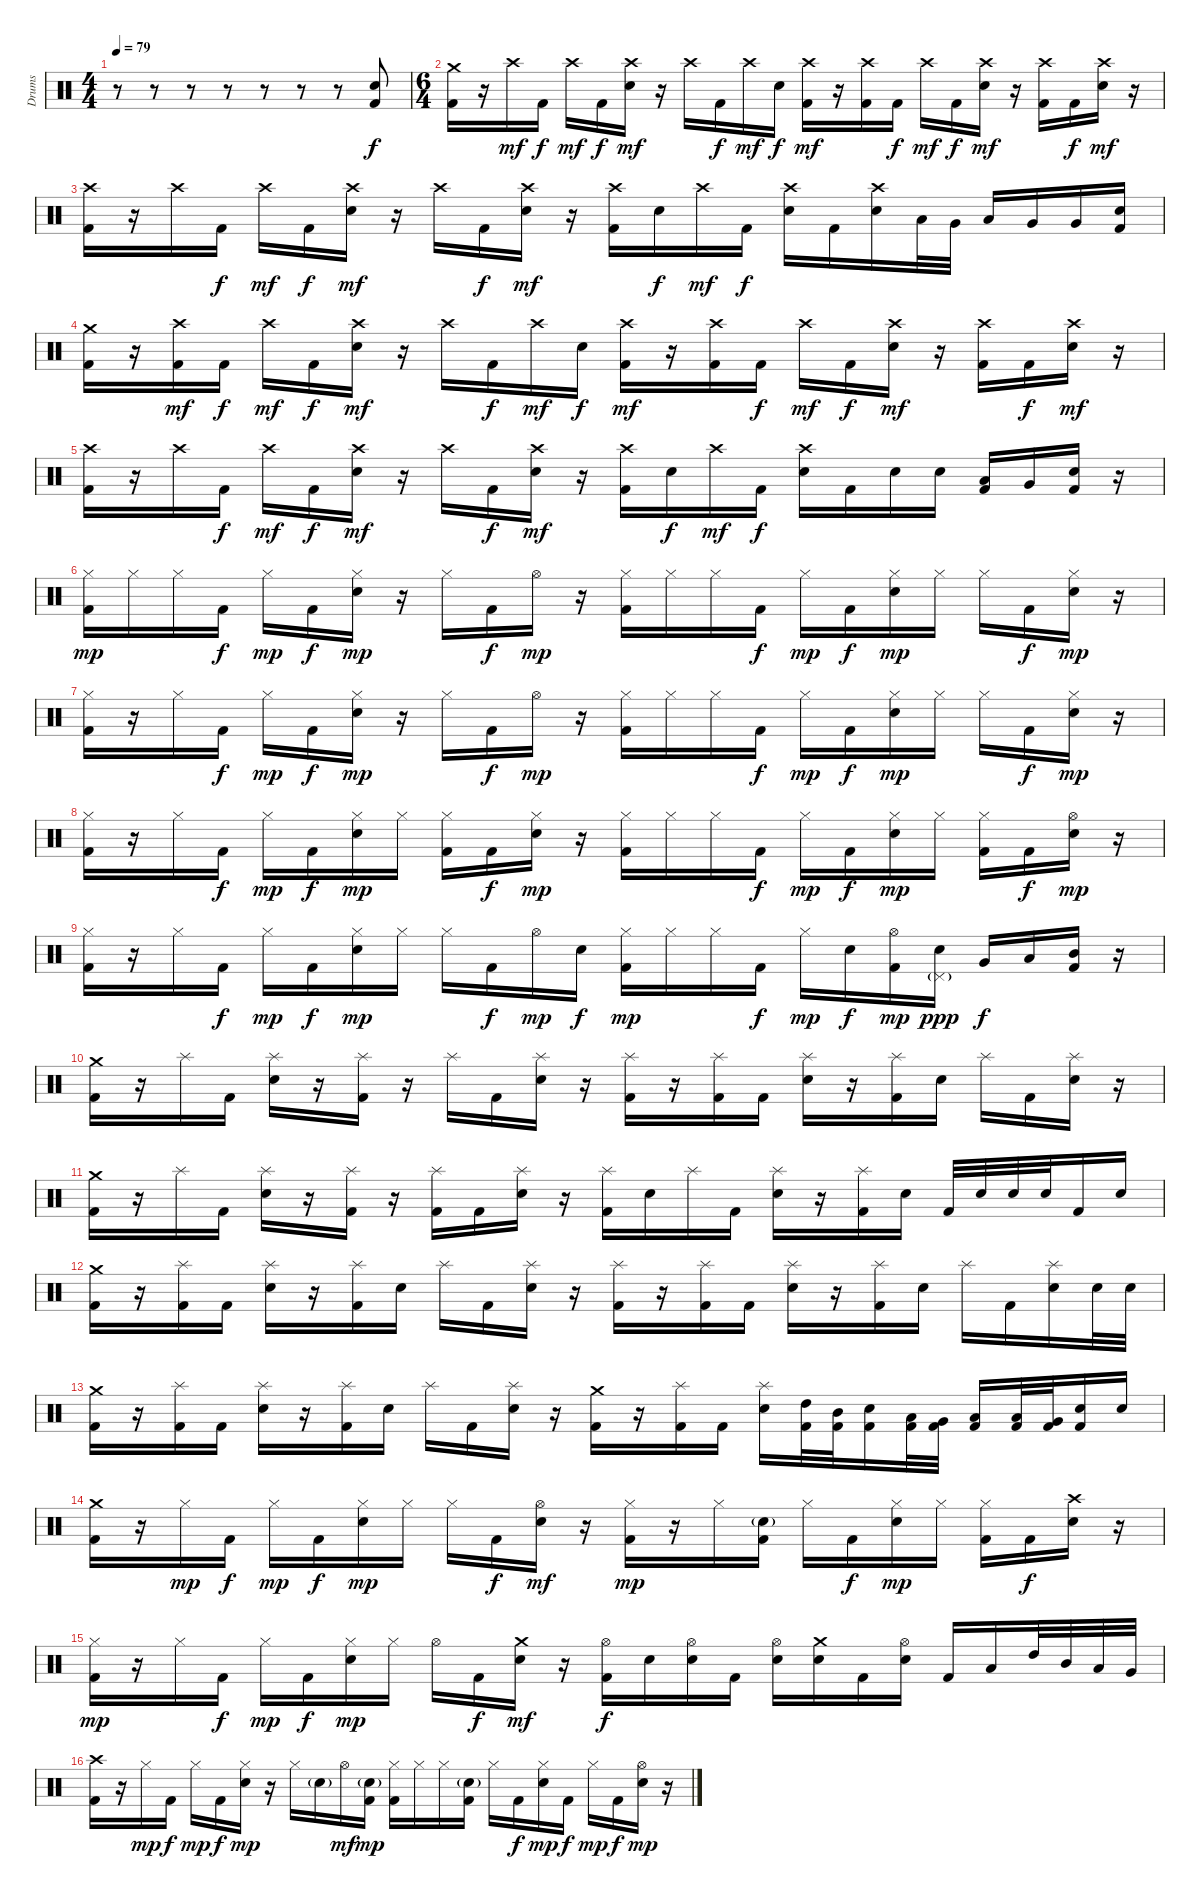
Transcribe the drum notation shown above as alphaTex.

\track ("Drums" "Drums") {instrument percussion}
\staff {score}
\articulation defaults
\ts (4 4)
\tempo 79
\clef neutral
\ks c
r.8{dy ppp} r.8 r.8 r.8 r.8 r.8 r.8 ("Electric Snare (hit)" "Kick (hit) 2").8{dy f} |
\ts (6 4)
("Crash medium (hit)" "Kick (hit) 2").16 r.16 "Crash high (hit)".16{dy mf} "Kick (hit) 2".16{dy f} "Crash high (hit)".16{dy mf} "Kick (hit) 2".16{dy f} ("Crash high (hit)" "Electric Snare (hit)").16{dy mf} r.16 "Crash high (hit)".16 "Kick (hit) 2".16{dy f} "Crash high (hit)".16{dy mf} "Electric Snare (hit)".16{dy f} ("Crash high (hit)" "Kick (hit) 2").16{dy mf} r.16 ("Crash high (hit)" "Kick (hit) 2").16 "Kick (hit) 2".16{dy f} "Crash high (hit)".16{dy mf} "Kick (hit) 2".16{dy f} ("Crash high (hit)" "Electric Snare (hit)").16{dy mf} r.16 ("Crash high (hit)" "Kick (hit) 2").16 "Kick (hit) 2".16{dy f} ("Crash high (hit)" "Electric Snare (hit)").16{dy mf} r.16 |
("Crash high (hit)" "Kick (hit) 2").16 r.16 "Crash high (hit)".16 "Kick (hit) 2".16{dy f} "Crash high (hit)".16{dy mf} "Kick (hit) 2".16{dy f} ("Crash high (hit)" "Electric Snare (hit)").16{dy mf} r.16 "Crash high (hit)".16 "Kick (hit) 2".16{dy f} ("Crash high (hit)" "Electric Snare (hit)").16{dy mf} r.16 ("Crash high (hit)" "Kick (hit) 2").16 "Electric Snare (hit)".16{dy f} "Crash high (hit)".16{dy mf} "Kick (hit) 2".16{dy f} ("Crash high (hit)" "Electric Snare (hit)").16 "Kick (hit) 2".16 ("Crash high (hit)" "Electric Snare (hit)").16 "Low Floor Tom (hit)".32 "Very Low Tom (hit)".32 "Low Tom (hit)".16 "Very Low Tom (hit)".16 "Very Low Tom (hit)".16 ("Electric Snare (hit)" "Kick (hit) 2").16 |
("Crash medium (hit)" "Kick (hit) 2").16 r.16 ("Crash high (hit)" "Kick (hit) 2").16{dy mf} "Kick (hit) 2".16{dy f} "Crash high (hit)".16{dy mf} "Kick (hit) 2".16{dy f} ("Crash high (hit)" "Electric Snare (hit)").16{dy mf} r.16 "Crash high (hit)".16 "Kick (hit) 2".16{dy f} "Crash high (hit)".16{dy mf} "Electric Snare (hit)".16{dy f} ("Crash high (hit)" "Kick (hit) 2").16{dy mf} r.16 ("Crash high (hit)" "Kick (hit) 2").16 "Kick (hit) 2".16{dy f} "Crash high (hit)".16{dy mf} "Kick (hit) 2".16{dy f} ("Crash high (hit)" "Electric Snare (hit)").16{dy mf} r.16 ("Crash high (hit)" "Kick (hit) 2").16 "Kick (hit) 2".16{dy f} ("Crash high (hit)" "Electric Snare (hit)").16{dy mf} r.16 |
("Crash high (hit)" "Kick (hit) 2").16 r.16 "Crash high (hit)".16 "Kick (hit) 2".16{dy f} "Crash high (hit)".16{dy mf} "Kick (hit) 2".16{dy f} ("Crash high (hit)" "Electric Snare (hit)").16{dy mf} r.16 "Crash high (hit)".16 "Kick (hit) 2".16{dy f} ("Crash high (hit)" "Electric Snare (hit)").16{dy mf} r.16 ("Crash high (hit)" "Kick (hit) 2").16 "Electric Snare (hit)".16{dy f} "Crash high (hit)".16{dy mf} "Kick (hit) 2".16{dy f} ("Crash high (hit)" "Electric Snare (hit)").16 "Kick (hit) 2".16 "Electric Snare (hit)".16 "Electric Snare (hit)".16 ("Low Floor Tom (hit)" "Kick (hit) 2").16 "Very Low Tom (hit)".16 ("Electric Snare (hit)" "Kick (hit) 2").16 r.16 |
("Hi-Hat (closed)" "Kick (hit) 2").16{dy mp} "Hi-Hat (closed)".16 "Hi-Hat (closed)".16 "Kick (hit) 2".16{dy f} "Hi-Hat (closed)".16{dy mp} "Kick (hit) 2".16{dy f} ("Hi-Hat (closed)" "Electric Snare (hit)").16{dy mp} r.16 "Hi-Hat (closed)".16 "Kick (hit) 2".16{dy f} "Hi-Hat (open)".16{dy mp} r.16 ("Hi-Hat (closed)" "Kick (hit) 2").16 "Hi-Hat (closed)".16 "Hi-Hat (closed)".16 "Kick (hit) 2".16{dy f} "Hi-Hat (closed)".16{dy mp} "Kick (hit) 2".16{dy f} ("Hi-Hat (closed)" "Electric Snare (hit)").16{dy mp} "Hi-Hat (closed)".16 "Hi-Hat (closed)".16 "Kick (hit) 2".16{dy f} ("Hi-Hat (closed)" "Electric Snare (hit)").16{dy mp} r.16 |
("Hi-Hat (closed)" "Kick (hit) 2").16 r.16 "Hi-Hat (closed)".16 "Kick (hit) 2".16{dy f} "Hi-Hat (closed)".16{dy mp} "Kick (hit) 2".16{dy f} ("Hi-Hat (closed)" "Electric Snare (hit)").16{dy mp} r.16 "Hi-Hat (closed)".16 "Kick (hit) 2".16{dy f} "Hi-Hat (open)".16{dy mp} r.16 ("Hi-Hat (closed)" "Kick (hit) 2").16 "Hi-Hat (closed)".16 "Hi-Hat (closed)".16 "Kick (hit) 2".16{dy f} "Hi-Hat (closed)".16{dy mp} "Kick (hit) 2".16{dy f} ("Hi-Hat (closed)" "Electric Snare (hit)").16{dy mp} "Hi-Hat (closed)".16 "Hi-Hat (closed)".16 "Kick (hit) 2".16{dy f} ("Hi-Hat (closed)" "Electric Snare (hit)").16{dy mp} r.16 |
("Hi-Hat (closed)" "Kick (hit) 2").16 r.16 "Hi-Hat (closed)".16 "Kick (hit) 2".16{dy f} "Hi-Hat (closed)".16{dy mp} "Kick (hit) 2".16{dy f} ("Hi-Hat (closed)" "Electric Snare (hit)").16{dy mp} "Hi-Hat (closed)".16 ("Hi-Hat (closed)" "Kick (hit) 2").16 "Kick (hit) 2".16{dy f} ("Hi-Hat (closed)" "Electric Snare (hit)").16{dy mp} r.16 ("Hi-Hat (closed)" "Kick (hit) 2").16 "Hi-Hat (closed)".16 "Hi-Hat (closed)".16 "Kick (hit) 2".16{dy f} "Hi-Hat (closed)".16{dy mp} "Kick (hit) 2".16{dy f} ("Hi-Hat (closed)" "Electric Snare (hit)").16{dy mp} "Hi-Hat (closed)".16 ("Hi-Hat (closed)" "Kick (hit) 2").16 "Kick (hit) 2".16{dy f} ("Hi-Hat (open)" "Electric Snare (hit)").16{dy mp} r.16 |
("Hi-Hat (closed)" "Kick (hit) 2").16 r.16 "Hi-Hat (closed)".16 "Kick (hit) 2".16{dy f} "Hi-Hat (closed)".16{dy mp} "Kick (hit) 2".16{dy f} ("Hi-Hat (closed)" "Electric Snare (hit)").16{dy mp} "Hi-Hat (closed)".16 "Hi-Hat (closed)".16 "Kick (hit) 2".16{dy f} "Hi-Hat (open)".16{dy mp} "Electric Snare (hit)".16{dy f} ("Hi-Hat (closed)" "Kick (hit) 2").16{dy mp} "Hi-Hat (closed)".16 "Hi-Hat (closed)".16 "Kick (hit) 2".16{dy f} "Hi-Hat (closed)".16{dy mp} "Electric Snare (hit)".16{dy f} ("Hi-Hat (open)" "Kick (hit) 2").16{dy mp} ("Pedal Hi-Hat (hit)"{g} "Electric Snare (hit)").16{dy ppp} "Very Low Tom (hit)".16{dy f} "Low Floor Tom (hit)".16 ("Mid Tom (hit)" "Kick (hit) 2").16 r.16 |
("Crash medium (hit)" "Kick (hit) 2").16 r.16 "Splash (hit)".16 "Kick (hit) 2".16 ("Splash (hit)" "Electric Snare (hit)").16 r.16 ("Splash (hit)" "Kick (hit) 2").16 r.16 "Splash (hit)".16 "Kick (hit) 2".16 ("Splash (hit)" "Electric Snare (hit)").16 r.16 ("Splash (hit)" "Kick (hit) 2").16 r.16 ("Splash (hit)" "Kick (hit) 2").16 "Kick (hit) 2".16 ("Splash (hit)" "Electric Snare (hit)").16 r.16 ("Splash (hit)" "Kick (hit) 2").16 "Electric Snare (hit)".16 "Splash (hit)".16 "Kick (hit) 2".16 ("Splash (hit)" "Electric Snare (hit)").16 r.16 |
("Crash medium (hit)" "Kick (hit) 2").16 r.16 "Splash (hit)".16 "Kick (hit) 2".16 ("Splash (hit)" "Electric Snare (hit)").16 r.16 ("Splash (hit)" "Kick (hit) 2").16 r.16 ("Splash (hit)" "Kick (hit) 2").16 "Kick (hit) 2".16 ("Splash (hit)" "Electric Snare (hit)").16 r.16 ("Splash (hit)" "Kick (hit) 2").16 "Electric Snare (hit)".16 "Splash (hit)".16 "Kick (hit) 2".16 ("Splash (hit)" "Electric Snare (hit)").16 r.16 ("Splash (hit)" "Kick (hit) 2").16 "Electric Snare (hit)".16 "Kick (hit) 2".32 "Electric Snare (hit)".32 "Electric Snare (hit)".32 "Electric Snare (hit)".32 "Kick (hit) 2".16 "Electric Snare (hit)".16 |
("Crash medium (hit)" "Kick (hit) 2").16 r.16 ("Splash (hit)" "Kick (hit) 2").16 "Kick (hit) 2".16 ("Splash (hit)" "Electric Snare (hit)").16 r.16 ("Splash (hit)" "Kick (hit) 2").16 "Electric Snare (hit)".16 "Splash (hit)".16 "Kick (hit) 2".16 ("Splash (hit)" "Electric Snare (hit)").16 r.16 ("Splash (hit)" "Kick (hit) 2").16 r.16 ("Splash (hit)" "Kick (hit) 2").16 "Kick (hit) 2".16 ("Splash (hit)" "Electric Snare (hit)").16 r.16 ("Splash (hit)" "Kick (hit) 2").16 "Electric Snare (hit)".16 "Splash (hit)".16 "Kick (hit) 2".16 ("Splash (hit)" "Electric Snare (hit)").16 "Electric Snare (hit)".32 "Electric Snare (hit)".32 |
("Crash medium (hit)" "Kick (hit) 2").16 r.16 ("Splash (hit)" "Kick (hit) 2").16 "Kick (hit) 2".16 ("Splash (hit)" "Electric Snare (hit)").16 r.16 ("Splash (hit)" "Kick (hit) 2").16 "Electric Snare (hit)".16 "Splash (hit)".16 "Kick (hit) 2".16 ("Splash (hit)" "Electric Snare (hit)").16 r.16 ("Crash medium (hit)" "Kick (hit) 2").16 r.16 ("Splash (hit)" "Kick (hit) 2").16 "Kick (hit) 2".16 ("Splash (hit)" "Electric Snare (hit)").16 ("High Tom (hit)" "Kick (hit) 2").32 ("Mid Tom (hit)" "Kick (hit) 2").32 ("Electric Snare (hit)" "Kick (hit) 2").16 ("Low Tom (hit)" "Kick (hit) 2").32 ("Very Low Tom (hit)" "Kick (hit) 2").32 ("Low Floor Tom (hit)" "Kick (hit) 2").16 ("Low Floor Tom (hit)" "Kick (hit) 2").32 ("Very Low Tom (hit)" "Kick (hit) 2").32 ("Electric Snare (hit)" "Kick (hit) 2").16 "Electric Snare (hit)".16 |
("Crash medium (hit)" "Kick (hit) 2").16 r.16 "Hi-Hat (closed)".16{dy mp} "Kick (hit) 2".16{dy f} "Hi-Hat (closed)".16{dy mp} "Kick (hit) 2".16{dy f} ("Hi-Hat (closed)" "Electric Snare (hit)").16{dy mp} "Hi-Hat (closed)".16 "Hi-Hat (closed)".16 "Kick (hit) 2".16{dy f} ("Hi-Hat (open)" "Electric Snare (hit)").16{dy mf} r.16 ("Hi-Hat (closed)" "Kick (hit) 2").16{dy mp} r.16 "Hi-Hat (closed)".16 ("Electric Snare (hit)"{g} "Kick (hit) 2").16 "Hi-Hat (closed)".16 "Kick (hit) 2".16{dy f} ("Hi-Hat (closed)" "Electric Snare (hit)").16{dy mp} "Hi-Hat (closed)".16 ("Hi-Hat (closed)" "Kick (hit) 2").16 "Kick (hit) 2".16{dy f} ("Crash high (hit)" "Electric Snare (hit)").16 r.16 |
("Hi-Hat (closed)" "Kick (hit) 2").16{dy mp} r.16 "Hi-Hat (closed)".16 "Kick (hit) 2".16{dy f} "Hi-Hat (closed)".16{dy mp} "Kick (hit) 2".16{dy f} ("Hi-Hat (closed)" "Electric Snare (hit)").16{dy mp} "Hi-Hat (closed)".16 "Hi-Hat (open)".16 "Kick (hit) 2".16{dy f} ("Crash medium (hit)" "Electric Snare (hit)").16{dy mf} r.16 ("Hi-Hat (open)" "Kick (hit) 2").16{dy f} "Electric Snare (hit)".16 ("Hi-Hat (open)" "Electric Snare (hit)").16 "Kick (hit) 2".16 ("Hi-Hat (open)" "Electric Snare (hit)").16 ("Crash medium (hit)" "Electric Snare (hit)").16 "Kick (hit) 2".16 ("Hi-Hat (open)" "Electric Snare (hit)").16 "Kick (hit) 2".16 "Low Floor Tom (hit)".16 "High Tom (hit)".32 "Mid Tom (hit)".32 "Low Tom (hit)".32 "Very Low Tom (hit)".32 |
("Crash high (hit)" "Kick (hit) 2").16 r.16 "Hi-Hat (closed)".16{dy mp} "Kick (hit) 2".16{dy f} "Hi-Hat (closed)".16{dy mp} "Kick (hit) 2".16{dy f} ("Hi-Hat (closed)" "Electric Snare (hit)").16{dy mp} r.16 "Hi-Hat (closed)".16 "Electric Snare (hit)"{g}.16 "Hi-Hat (open)".16{dy mf} ("Electric Snare (hit)"{g} "Kick (hit) 2").16{dy mp} ("Hi-Hat (closed)" "Kick (hit) 2").16 "Hi-Hat (closed)".16 "Hi-Hat (closed)".16 ("Electric Snare (hit)"{g} "Kick (hit) 2").16 "Hi-Hat (closed)".16 "Kick (hit) 2".16{dy f} ("Hi-Hat (closed)" "Electric Snare (hit)").16{dy mp} "Kick (hit) 2".16{dy f} "Hi-Hat (closed)".16{dy mp} "Kick (hit) 2".16{dy f} ("Hi-Hat (open)" "Electric Snare (hit)").16{dy mp} r.16
